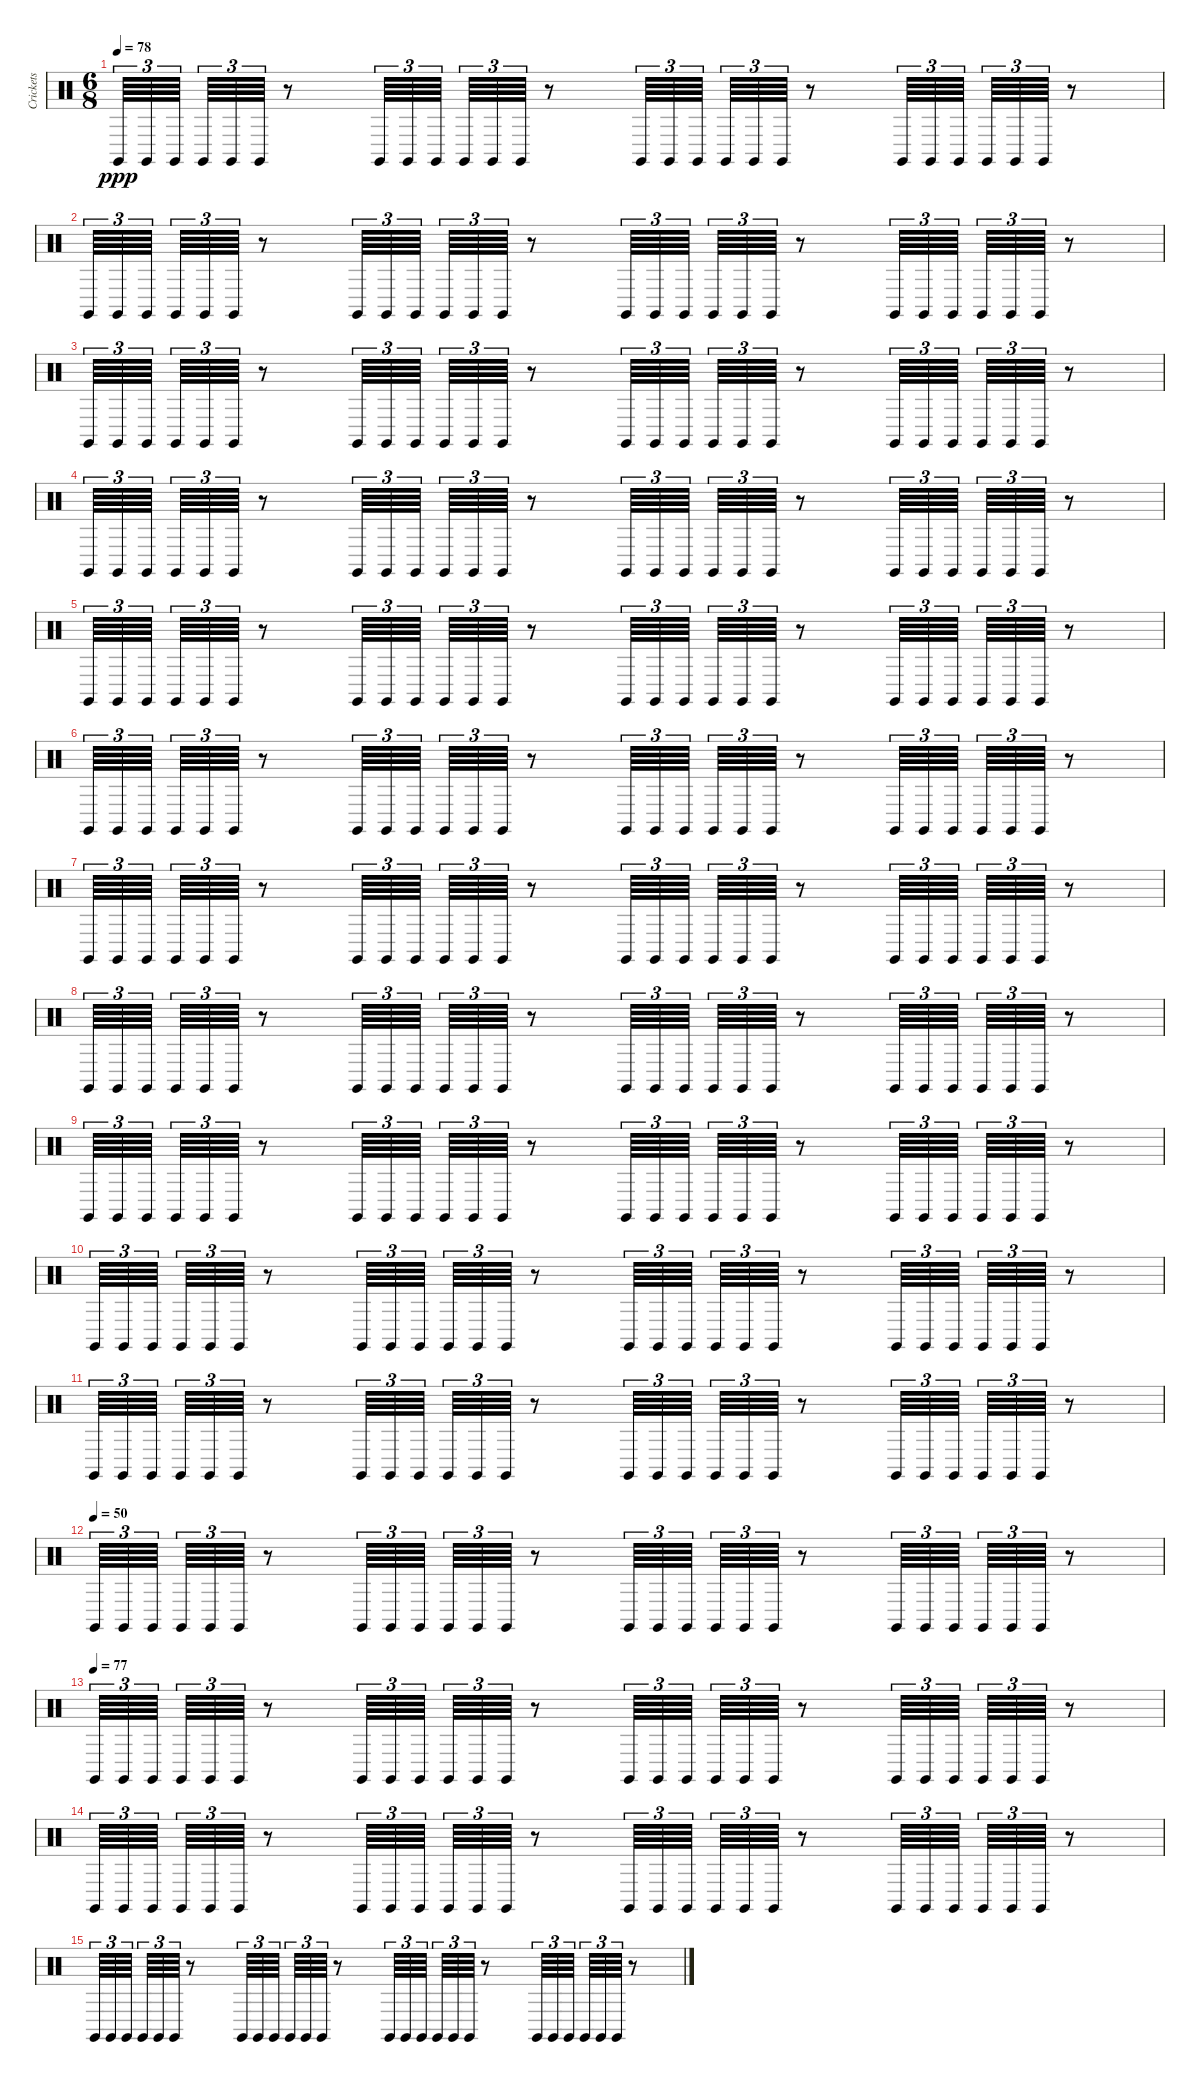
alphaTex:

\track ("Crickets" "Crickets") {instrument percussion}
\staff {score}
\articulation defaults
\ts (6 8)
\tempo 78
\clef neutral
\ks c "Claves (hit)".64{tu (3 2) dy ppp} "Claves (hit)".64{tu (3 2)} "Claves (hit)".64{tu (3 2) beam splitsecondary} "Claves (hit)".64{tu (3 2)} "Claves (hit)".64{tu (3 2)} "Claves (hit)".64{tu (3 2)}
r.8 "Claves (hit)".64{tu (3 2)} "Claves (hit)".64{tu (3 2)} "Claves (hit)".64{tu (3 2) beam splitsecondary} "Claves (hit)".64{tu (3 2)} "Claves (hit)".64{tu (3 2)} "Claves (hit)".64{tu (3 2)} r.8 "Claves (hit)".64{tu (3 2)} "Claves (hit)".64{tu (3 2)} "Claves (hit)".64{tu (3 2) beam splitsecondary} "Claves (hit)".64{tu (3 2)} "Claves (hit)".64{tu (3 2)} "Claves (hit)".64{tu (3 2)} r.8 "Claves (hit)".64{tu (3 2)} "Claves (hit)".64{tu (3 2)} "Claves (hit)".64{tu (3 2) beam splitsecondary} "Claves (hit)".64{tu (3 2)} "Claves (hit)".64{tu (3 2)} "Claves (hit)".64{tu (3 2)} r.8 |
"Claves (hit)".64{tu (3 2)} "Claves (hit)".64{tu (3 2)} "Claves (hit)".64{tu (3 2) beam splitsecondary} "Claves (hit)".64{tu (3 2)} "Claves (hit)".64{tu (3 2)} "Claves (hit)".64{tu (3 2)} r.8 "Claves (hit)".64{tu (3 2)} "Claves (hit)".64{tu (3 2)} "Claves (hit)".64{tu (3 2) beam splitsecondary} "Claves (hit)".64{tu (3 2)} "Claves (hit)".64{tu (3 2)} "Claves (hit)".64{tu (3 2)} r.8 "Claves (hit)".64{tu (3 2)} "Claves (hit)".64{tu (3 2)} "Claves (hit)".64{tu (3 2) beam splitsecondary} "Claves (hit)".64{tu (3 2)} "Claves (hit)".64{tu (3 2)} "Claves (hit)".64{tu (3 2)} r.8 "Claves (hit)".64{tu (3 2)} "Claves (hit)".64{tu (3 2)} "Claves (hit)".64{tu (3 2) beam splitsecondary} "Claves (hit)".64{tu (3 2)} "Claves (hit)".64{tu (3 2)} "Claves (hit)".64{tu (3 2)} r.8 |
"Claves (hit)".64{tu (3 2)} "Claves (hit)".64{tu (3 2)} "Claves (hit)".64{tu (3 2) beam splitsecondary} "Claves (hit)".64{tu (3 2)} "Claves (hit)".64{tu (3 2)} "Claves (hit)".64{tu (3 2)} r.8 "Claves (hit)".64{tu (3 2)} "Claves (hit)".64{tu (3 2)} "Claves (hit)".64{tu (3 2) beam splitsecondary} "Claves (hit)".64{tu (3 2)} "Claves (hit)".64{tu (3 2)} "Claves (hit)".64{tu (3 2)} r.8 "Claves (hit)".64{tu (3 2)} "Claves (hit)".64{tu (3 2)} "Claves (hit)".64{tu (3 2) beam splitsecondary} "Claves (hit)".64{tu (3 2)} "Claves (hit)".64{tu (3 2)} "Claves (hit)".64{tu (3 2)} r.8 "Claves (hit)".64{tu (3 2)} "Claves (hit)".64{tu (3 2)} "Claves (hit)".64{tu (3 2) beam splitsecondary} "Claves (hit)".64{tu (3 2)} "Claves (hit)".64{tu (3 2)} "Claves (hit)".64{tu (3 2)} r.8 |
"Claves (hit)".64{tu (3 2)} "Claves (hit)".64{tu (3 2)} "Claves (hit)".64{tu (3 2) beam splitsecondary} "Claves (hit)".64{tu (3 2)} "Claves (hit)".64{tu (3 2)} "Claves (hit)".64{tu (3 2)} r.8 "Claves (hit)".64{tu (3 2)} "Claves (hit)".64{tu (3 2)} "Claves (hit)".64{tu (3 2) beam splitsecondary} "Claves (hit)".64{tu (3 2)} "Claves (hit)".64{tu (3 2)} "Claves (hit)".64{tu (3 2)} r.8 "Claves (hit)".64{tu (3 2)} "Claves (hit)".64{tu (3 2)} "Claves (hit)".64{tu (3 2) beam splitsecondary} "Claves (hit)".64{tu (3 2)} "Claves (hit)".64{tu (3 2)} "Claves (hit)".64{tu (3 2)} r.8 "Claves (hit)".64{tu (3 2)} "Claves (hit)".64{tu (3 2)} "Claves (hit)".64{tu (3 2) beam splitsecondary} "Claves (hit)".64{tu (3 2)} "Claves (hit)".64{tu (3 2)} "Claves (hit)".64{tu (3 2)} r.8 |
"Claves (hit)".64{tu (3 2)} "Claves (hit)".64{tu (3 2)} "Claves (hit)".64{tu (3 2) beam splitsecondary} "Claves (hit)".64{tu (3 2)} "Claves (hit)".64{tu (3 2)} "Claves (hit)".64{tu (3 2)} r.8 "Claves (hit)".64{tu (3 2)} "Claves (hit)".64{tu (3 2)} "Claves (hit)".64{tu (3 2) beam splitsecondary} "Claves (hit)".64{tu (3 2)} "Claves (hit)".64{tu (3 2)} "Claves (hit)".64{tu (3 2)} r.8 "Claves (hit)".64{tu (3 2)} "Claves (hit)".64{tu (3 2)} "Claves (hit)".64{tu (3 2) beam splitsecondary} "Claves (hit)".64{tu (3 2)} "Claves (hit)".64{tu (3 2)} "Claves (hit)".64{tu (3 2)} r.8 "Claves (hit)".64{tu (3 2)} "Claves (hit)".64{tu (3 2)} "Claves (hit)".64{tu (3 2) beam splitsecondary} "Claves (hit)".64{tu (3 2)} "Claves (hit)".64{tu (3 2)} "Claves (hit)".64{tu (3 2)} r.8 |
"Claves (hit)".64{tu (3 2)} "Claves (hit)".64{tu (3 2)} "Claves (hit)".64{tu (3 2) beam splitsecondary} "Claves (hit)".64{tu (3 2)} "Claves (hit)".64{tu (3 2)} "Claves (hit)".64{tu (3 2)} r.8 "Claves (hit)".64{tu (3 2)} "Claves (hit)".64{tu (3 2)} "Claves (hit)".64{tu (3 2) beam splitsecondary} "Claves (hit)".64{tu (3 2)} "Claves (hit)".64{tu (3 2)} "Claves (hit)".64{tu (3 2)} r.8 "Claves (hit)".64{tu (3 2)} "Claves (hit)".64{tu (3 2)} "Claves (hit)".64{tu (3 2) beam splitsecondary} "Claves (hit)".64{tu (3 2)} "Claves (hit)".64{tu (3 2)} "Claves (hit)".64{tu (3 2)} r.8 "Claves (hit)".64{tu (3 2)} "Claves (hit)".64{tu (3 2)} "Claves (hit)".64{tu (3 2) beam splitsecondary} "Claves (hit)".64{tu (3 2)} "Claves (hit)".64{tu (3 2)} "Claves (hit)".64{tu (3 2)} r.8 |
"Claves (hit)".64{tu (3 2)} "Claves (hit)".64{tu (3 2)} "Claves (hit)".64{tu (3 2) beam splitsecondary} "Claves (hit)".64{tu (3 2)} "Claves (hit)".64{tu (3 2)} "Claves (hit)".64{tu (3 2)} r.8 "Claves (hit)".64{tu (3 2)} "Claves (hit)".64{tu (3 2)} "Claves (hit)".64{tu (3 2) beam splitsecondary} "Claves (hit)".64{tu (3 2)} "Claves (hit)".64{tu (3 2)} "Claves (hit)".64{tu (3 2)} r.8 "Claves (hit)".64{tu (3 2)} "Claves (hit)".64{tu (3 2)} "Claves (hit)".64{tu (3 2) beam splitsecondary} "Claves (hit)".64{tu (3 2)} "Claves (hit)".64{tu (3 2)} "Claves (hit)".64{tu (3 2)} r.8 "Claves (hit)".64{tu (3 2)} "Claves (hit)".64{tu (3 2)} "Claves (hit)".64{tu (3 2) beam splitsecondary} "Claves (hit)".64{tu (3 2)} "Claves (hit)".64{tu (3 2)} "Claves (hit)".64{tu (3 2)} r.8 |
"Claves (hit)".64{tu (3 2)} "Claves (hit)".64{tu (3 2)} "Claves (hit)".64{tu (3 2) beam splitsecondary} "Claves (hit)".64{tu (3 2)} "Claves (hit)".64{tu (3 2)} "Claves (hit)".64{tu (3 2)} r.8 "Claves (hit)".64{tu (3 2)} "Claves (hit)".64{tu (3 2)} "Claves (hit)".64{tu (3 2) beam splitsecondary} "Claves (hit)".64{tu (3 2)} "Claves (hit)".64{tu (3 2)} "Claves (hit)".64{tu (3 2)} r.8 "Claves (hit)".64{tu (3 2)} "Claves (hit)".64{tu (3 2)} "Claves (hit)".64{tu (3 2) beam splitsecondary} "Claves (hit)".64{tu (3 2)} "Claves (hit)".64{tu (3 2)} "Claves (hit)".64{tu (3 2)} r.8 "Claves (hit)".64{tu (3 2)} "Claves (hit)".64{tu (3 2)} "Claves (hit)".64{tu (3 2) beam splitsecondary} "Claves (hit)".64{tu (3 2)} "Claves (hit)".64{tu (3 2)} "Claves (hit)".64{tu (3 2)} r.8 |
"Claves (hit)".64{tu (3 2)} "Claves (hit)".64{tu (3 2)} "Claves (hit)".64{tu (3 2) beam splitsecondary} "Claves (hit)".64{tu (3 2)} "Claves (hit)".64{tu (3 2)} "Claves (hit)".64{tu (3 2)} r.8 "Claves (hit)".64{tu (3 2)} "Claves (hit)".64{tu (3 2)} "Claves (hit)".64{tu (3 2) beam splitsecondary} "Claves (hit)".64{tu (3 2)} "Claves (hit)".64{tu (3 2)} "Claves (hit)".64{tu (3 2)} r.8 "Claves (hit)".64{tu (3 2)} "Claves (hit)".64{tu (3 2)} "Claves (hit)".64{tu (3 2) beam splitsecondary} "Claves (hit)".64{tu (3 2)} "Claves (hit)".64{tu (3 2)} "Claves (hit)".64{tu (3 2)} r.8 "Claves (hit)".64{tu (3 2)} "Claves (hit)".64{tu (3 2)} "Claves (hit)".64{tu (3 2) beam splitsecondary} "Claves (hit)".64{tu (3 2)} "Claves (hit)".64{tu (3 2)} "Claves (hit)".64{tu (3 2)} r.8 |
"Claves (hit)".64{tu (3 2)} "Claves (hit)".64{tu (3 2)} "Claves (hit)".64{tu (3 2) beam splitsecondary} "Claves (hit)".64{tu (3 2)} "Claves (hit)".64{tu (3 2)} "Claves (hit)".64{tu (3 2)} r.8 "Claves (hit)".64{tu (3 2)} "Claves (hit)".64{tu (3 2)} "Claves (hit)".64{tu (3 2) beam splitsecondary} "Claves (hit)".64{tu (3 2)} "Claves (hit)".64{tu (3 2)} "Claves (hit)".64{tu (3 2)} r.8 "Claves (hit)".64{tu (3 2)} "Claves (hit)".64{tu (3 2)} "Claves (hit)".64{tu (3 2) beam splitsecondary} "Claves (hit)".64{tu (3 2)} "Claves (hit)".64{tu (3 2)} "Claves (hit)".64{tu (3 2)} r.8 "Claves (hit)".64{tu (3 2)} "Claves (hit)".64{tu (3 2)} "Claves (hit)".64{tu (3 2) beam splitsecondary} "Claves (hit)".64{tu (3 2)} "Claves (hit)".64{tu (3 2)} "Claves (hit)".64{tu (3 2)} r.8 |
"Claves (hit)".64{tu (3 2)} "Claves (hit)".64{tu (3 2)} "Claves (hit)".64{tu (3 2) beam splitsecondary} "Claves (hit)".64{tu (3 2)} "Claves (hit)".64{tu (3 2)} "Claves (hit)".64{tu (3 2)} r.8 "Claves (hit)".64{tu (3 2)} "Claves (hit)".64{tu (3 2)} "Claves (hit)".64{tu (3 2) beam splitsecondary} "Claves (hit)".64{tu (3 2)} "Claves (hit)".64{tu (3 2)} "Claves (hit)".64{tu (3 2)} r.8 "Claves (hit)".64{tu (3 2)} "Claves (hit)".64{tu (3 2)} "Claves (hit)".64{tu (3 2) beam splitsecondary} "Claves (hit)".64{tu (3 2)} "Claves (hit)".64{tu (3 2)} "Claves (hit)".64{tu (3 2)} r.8 "Claves (hit)".64{tu (3 2)} "Claves (hit)".64{tu (3 2)} "Claves (hit)".64{tu (3 2) beam splitsecondary} "Claves (hit)".64{tu (3 2)} "Claves (hit)".64{tu (3 2)} "Claves (hit)".64{tu (3 2)} r.8 |
\tempo (50)
"Claves (hit)".64{tu (3 2)} "Claves (hit)".64{tu (3 2)} "Claves (hit)".64{tu (3 2) beam splitsecondary} "Claves (hit)".64{tu (3 2)} "Claves (hit)".64{tu (3 2)} "Claves (hit)".64{tu (3 2)} r.8 "Claves (hit)".64{tu (3 2)} "Claves (hit)".64{tu (3 2)} "Claves (hit)".64{tu (3 2) beam splitsecondary} "Claves (hit)".64{tu (3 2)} "Claves (hit)".64{tu (3 2)} "Claves (hit)".64{tu (3 2)} r.8 "Claves (hit)".64{tu (3 2)} "Claves (hit)".64{tu (3 2)} "Claves (hit)".64{tu (3 2) beam splitsecondary} "Claves (hit)".64{tu (3 2)} "Claves (hit)".64{tu (3 2)} "Claves (hit)".64{tu (3 2)} r.8 "Claves (hit)".64{tu (3 2)} "Claves (hit)".64{tu (3 2)} "Claves (hit)".64{tu (3 2) beam splitsecondary} "Claves (hit)".64{tu (3 2)} "Claves (hit)".64{tu (3 2)} "Claves (hit)".64{tu (3 2)} r.8 |
\tempo (77)
"Claves (hit)".64{tu (3 2)} "Claves (hit)".64{tu (3 2)} "Claves (hit)".64{tu (3 2) beam splitsecondary} "Claves (hit)".64{tu (3 2)} "Claves (hit)".64{tu (3 2)} "Claves (hit)".64{tu (3 2)} r.8 "Claves (hit)".64{tu (3 2)} "Claves (hit)".64{tu (3 2)} "Claves (hit)".64{tu (3 2) beam splitsecondary} "Claves (hit)".64{tu (3 2)} "Claves (hit)".64{tu (3 2)} "Claves (hit)".64{tu (3 2)} r.8 "Claves (hit)".64{tu (3 2)} "Claves (hit)".64{tu (3 2)} "Claves (hit)".64{tu (3 2) beam splitsecondary} "Claves (hit)".64{tu (3 2)} "Claves (hit)".64{tu (3 2)} "Claves (hit)".64{tu (3 2)} r.8 "Claves (hit)".64{tu (3 2)} "Claves (hit)".64{tu (3 2)} "Claves (hit)".64{tu (3 2) beam splitsecondary} "Claves (hit)".64{tu (3 2)} "Claves (hit)".64{tu (3 2)} "Claves (hit)".64{tu (3 2)} r.8 |
"Claves (hit)".64{tu (3 2) volume 0} "Claves (hit)".64{tu (3 2)} "Claves (hit)".64{tu (3 2) beam splitsecondary} "Claves (hit)".64{tu (3 2)} "Claves (hit)".64{tu (3 2)} "Claves (hit)".64{tu (3 2)} r.8 "Claves (hit)".64{tu (3 2)} "Claves (hit)".64{tu (3 2)} "Claves (hit)".64{tu (3 2) beam splitsecondary} "Claves (hit)".64{tu (3 2)} "Claves (hit)".64{tu (3 2)} "Claves (hit)".64{tu (3 2)} r.8 "Claves (hit)".64{tu (3 2)} "Claves (hit)".64{tu (3 2)} "Claves (hit)".64{tu (3 2) beam splitsecondary} "Claves (hit)".64{tu (3 2)} "Claves (hit)".64{tu (3 2)} "Claves (hit)".64{tu (3 2)} r.8 "Claves (hit)".64{tu (3 2)} "Claves (hit)".64{tu (3 2)} "Claves (hit)".64{tu (3 2) beam splitsecondary} "Claves (hit)".64{tu (3 2)} "Claves (hit)".64{tu (3 2)} "Claves (hit)".64{tu (3 2)} r.8 |
"Claves (hit)".64{tu (3 2)} "Claves (hit)".64{tu (3 2)} "Claves (hit)".64{tu (3 2) beam splitsecondary} "Claves (hit)".64{tu (3 2)} "Claves (hit)".64{tu (3 2)} "Claves (hit)".64{tu (3 2)} r.8 "Claves (hit)".64{tu (3 2)} "Claves (hit)".64{tu (3 2)} "Claves (hit)".64{tu (3 2) beam splitsecondary} "Claves (hit)".64{tu (3 2)} "Claves (hit)".64{tu (3 2)} "Claves (hit)".64{tu (3 2)} r.8 "Claves (hit)".64{tu (3 2)} "Claves (hit)".64{tu (3 2)} "Claves (hit)".64{tu (3 2) beam splitsecondary} "Claves (hit)".64{tu (3 2)} "Claves (hit)".64{tu (3 2)} "Claves (hit)".64{tu (3 2)} r.8 "Claves (hit)".64{tu (3 2)} "Claves (hit)".64{tu (3 2)} "Claves (hit)".64{tu (3 2) beam splitsecondary} "Claves (hit)".64{tu (3 2)} "Claves (hit)".64{tu (3 2)} "Claves (hit)".64{tu (3 2)} r.8
